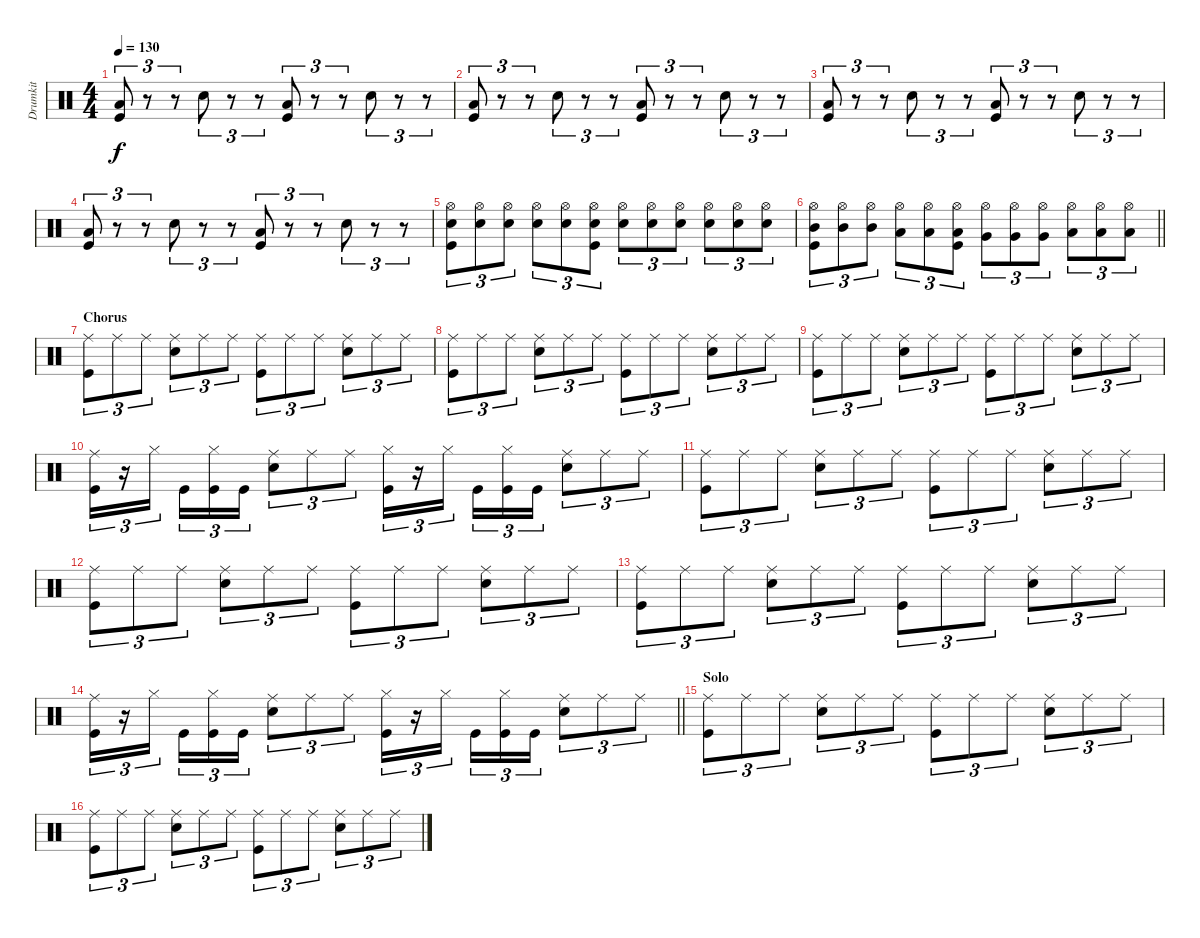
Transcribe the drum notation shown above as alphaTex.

\track ("Drumkit" "Drumkit") {instrument percussion}
\staff {score}
\articulation defaults
\ts (4 4)
\tempo 130
\clef neutral
\ks c
("Low Floor Tom (hit)" "Kick (hit)").8{tu (3 2) dy f} r.8{tu (3 2)} r.8{tu (3 2)} "Snare (hit) 2".8{tu (3 2)} r.8{tu (3 2)} r.8{tu (3 2)} ("Low Floor Tom (hit)" "Kick (hit)").8{tu (3 2)} r.8{tu (3 2)} r.8{tu (3 2)} "Snare (hit) 2".8{tu (3 2)} r.8{tu (3 2)} r.8{tu (3 2)} |
("Low Floor Tom (hit)" "Kick (hit)").8{tu (3 2)} r.8{tu (3 2)} r.8{tu (3 2)} "Snare (hit) 2".8{tu (3 2)} r.8{tu (3 2)} r.8{tu (3 2)} ("Low Floor Tom (hit)" "Kick (hit)").8{tu (3 2)} r.8{tu (3 2)} r.8{tu (3 2)} "Snare (hit) 2".8{tu (3 2)} r.8{tu (3 2)} r.8{tu (3 2)} |
("Low Floor Tom (hit)" "Kick (hit)").8{tu (3 2)} r.8{tu (3 2)} r.8{tu (3 2)} "Snare (hit) 2".8{tu (3 2)} r.8{tu (3 2)} r.8{tu (3 2)} ("Low Floor Tom (hit)" "Kick (hit)").8{tu (3 2)} r.8{tu (3 2)} r.8{tu (3 2)} "Snare (hit) 2".8{tu (3 2)} r.8{tu (3 2)} r.8{tu (3 2)} |
("Low Floor Tom (hit)" "Kick (hit)").8{tu (3 2)} r.8{tu (3 2)} r.8{tu (3 2)} "Snare (hit) 2".8{tu (3 2)} r.8{tu (3 2)} r.8{tu (3 2)} ("Low Floor Tom (hit)" "Kick (hit)").8{tu (3 2)} r.8{tu (3 2)} r.8{tu (3 2)} "Snare (hit) 2".8{tu (3 2)} r.8{tu (3 2)} r.8{tu (3 2)} |
("Kick (hit)" "Snare (hit) 2" "Hi-Hat (open)").8{tu (3 2)} ("Snare (hit) 2" "Hi-Hat (open)").8{tu (3 2)} ("Snare (hit) 2" "Hi-Hat (open)").8{tu (3 2)} ("Snare (hit) 2" "Hi-Hat (open)").8{tu (3 2)} ("Snare (hit) 2" "Hi-Hat (open)").8{tu (3 2)} ("Kick (hit)" "Snare (hit) 2" "Hi-Hat (open)").8{tu (3 2)} ("Snare (hit) 2" "Hi-Hat (open)").8{tu (3 2)} ("Snare (hit) 2" "Hi-Hat (open)").8{tu (3 2)} ("Snare (hit) 2" "Hi-Hat (open)").8{tu (3 2)} ("Snare (hit) 2" "Hi-Hat (open)").8{tu (3 2)} ("Snare (hit) 2" "Hi-Hat (open)").8{tu (3 2)} ("Snare (hit) 2" "Hi-Hat (open)").8{tu (3 2)} |
\barLineRight lightlight
("Kick (hit)" "Hi-Hat (open)" "Mid Tom (hit)").8{tu (3 2)} ("Hi-Hat (open)" "Mid Tom (hit)").8{tu (3 2)} ("Hi-Hat (open)" "Mid Tom (hit)").8{tu (3 2)} ("Hi-Hat (open)" "Low Tom (hit)").8{tu (3 2)} ("Hi-Hat (open)" "Low Tom (hit)").8{tu (3 2)} ("Kick (hit)" "Hi-Hat (open)" "Low Tom (hit)").8{tu (3 2)} ("Hi-Hat (open)" "Very Low Tom (hit)").8{tu (3 2)} ("Hi-Hat (open)" "Very Low Tom (hit)").8{tu (3 2)} ("Hi-Hat (open)" "Very Low Tom (hit)").8{tu (3 2)} ("Hi-Hat (open)" "Low Floor Tom (hit)").8{tu (3 2)} ("Hi-Hat (open)" "Low Floor Tom (hit)").8{tu (3 2)} ("Hi-Hat (open)" "Low Floor Tom (hit)").8{tu (3 2)} |
\section ("" "Chorus")
("Kick (hit)" "Ride (middle)").8{tu (3 2)} "Ride (middle)".8{tu (3 2)} "Ride (middle)".8{tu (3 2)} ("Snare (hit) 2" "Ride (middle)").8{tu (3 2)} "Ride (middle)".8{tu (3 2)} "Ride (middle)".8{tu (3 2)} ("Kick (hit)" "Ride (middle)").8{tu (3 2)} "Ride (middle)".8{tu (3 2)} "Ride (middle)".8{tu (3 2)} ("Snare (hit) 2" "Ride (middle)").8{tu (3 2)} "Ride (middle)".8{tu (3 2)} "Ride (middle)".8{tu (3 2)} |
("Kick (hit)" "Ride (middle)").8{tu (3 2)} "Ride (middle)".8{tu (3 2)} "Ride (middle)".8{tu (3 2)} ("Snare (hit) 2" "Ride (middle)").8{tu (3 2)} "Ride (middle)".8{tu (3 2)} "Ride (middle)".8{tu (3 2)} ("Kick (hit)" "Ride (middle)").8{tu (3 2)} "Ride (middle)".8{tu (3 2)} "Ride (middle)".8{tu (3 2)} ("Snare (hit) 2" "Ride (middle)").8{tu (3 2)} "Ride (middle)".8{tu (3 2)} "Ride (middle)".8{tu (3 2)} |
("Kick (hit)" "Ride (middle)").8{tu (3 2)} "Ride (middle)".8{tu (3 2)} "Ride (middle)".8{tu (3 2)} ("Snare (hit) 2" "Ride (middle)").8{tu (3 2)} "Ride (middle)".8{tu (3 2)} "Ride (middle)".8{tu (3 2)} ("Kick (hit)" "Ride (middle)").8{tu (3 2)} "Ride (middle)".8{tu (3 2)} "Ride (middle)".8{tu (3 2)} ("Snare (hit) 2" "Ride (middle)").8{tu (3 2)} "Ride (middle)".8{tu (3 2)} "Ride (middle)".8{tu (3 2)} |
("Kick (hit)" "Ride (middle)").16{tu (3 2)} r.16{tu (3 2)} "Hi-Hat (closed)".16{tu (3 2)} "Kick (hit)".16{tu (3 2)} ("Kick (hit)" "Hi-Hat (closed)").16{tu (3 2)} "Kick (hit)".16{tu (3 2)} ("Snare (hit) 2" "Ride (middle)").8{tu (3 2)} "Ride (middle)".8{tu (3 2)} "Ride (middle)".8{tu (3 2)} ("Kick (hit)" "Hi-Hat (closed)").16{tu (3 2)} r.16{tu (3 2)} "Hi-Hat (closed)".16{tu (3 2)} "Kick (hit)".16{tu (3 2)} ("Kick (hit)" "Hi-Hat (closed)").16{tu (3 2)} "Kick (hit)".16{tu (3 2)} ("Snare (hit) 2" "Ride (middle)").8{tu (3 2)} "Ride (middle)".8{tu (3 2)} "Ride (middle)".8{tu (3 2)} |
("Kick (hit)" "Ride (middle)").8{tu (3 2)} "Ride (middle)".8{tu (3 2)} "Ride (middle)".8{tu (3 2)} ("Snare (hit) 2" "Ride (middle)").8{tu (3 2)} "Ride (middle)".8{tu (3 2)} "Ride (middle)".8{tu (3 2)} ("Kick (hit)" "Ride (middle)").8{tu (3 2)} "Ride (middle)".8{tu (3 2)} "Ride (middle)".8{tu (3 2)} ("Snare (hit) 2" "Ride (middle)").8{tu (3 2)} "Ride (middle)".8{tu (3 2)} "Ride (middle)".8{tu (3 2)} |
("Kick (hit)" "Ride (middle)").8{tu (3 2)} "Ride (middle)".8{tu (3 2)} "Ride (middle)".8{tu (3 2)} ("Snare (hit) 2" "Ride (middle)").8{tu (3 2)} "Ride (middle)".8{tu (3 2)} "Ride (middle)".8{tu (3 2)} ("Kick (hit)" "Ride (middle)").8{tu (3 2)} "Ride (middle)".8{tu (3 2)} "Ride (middle)".8{tu (3 2)} ("Snare (hit) 2" "Ride (middle)").8{tu (3 2)} "Ride (middle)".8{tu (3 2)} "Ride (middle)".8{tu (3 2)} |
("Kick (hit)" "Ride (middle)").8{tu (3 2)} "Ride (middle)".8{tu (3 2)} "Ride (middle)".8{tu (3 2)} ("Snare (hit) 2" "Ride (middle)").8{tu (3 2)} "Ride (middle)".8{tu (3 2)} "Ride (middle)".8{tu (3 2)} ("Kick (hit)" "Ride (middle)").8{tu (3 2)} "Ride (middle)".8{tu (3 2)} "Ride (middle)".8{tu (3 2)} ("Snare (hit) 2" "Ride (middle)").8{tu (3 2)} "Ride (middle)".8{tu (3 2)} "Ride (middle)".8{tu (3 2)} |
\barLineRight lightlight
("Kick (hit)" "Ride (middle)").16{tu (3 2)} r.16{tu (3 2)} "Hi-Hat (closed)".16{tu (3 2)} "Kick (hit)".16{tu (3 2)} ("Kick (hit)" "Hi-Hat (closed)").16{tu (3 2)} "Kick (hit)".16{tu (3 2)} ("Snare (hit) 2" "Ride (middle)").8{tu (3 2)} "Ride (middle)".8{tu (3 2)} "Ride (middle)".8{tu (3 2)} ("Kick (hit)" "Hi-Hat (closed)").16{tu (3 2)} r.16{tu (3 2)} "Hi-Hat (closed)".16{tu (3 2)} "Kick (hit)".16{tu (3 2)} ("Kick (hit)" "Hi-Hat (closed)").16{tu (3 2)} "Kick (hit)".16{tu (3 2)} ("Snare (hit) 2" "Ride (middle)").8{tu (3 2)} "Ride (middle)".8{tu (3 2)} "Ride (middle)".8{tu (3 2)} |
\section ("" "Solo")
("Kick (hit)" "Ride (middle)").8{tu (3 2)} "Ride (middle)".8{tu (3 2)} "Ride (middle)".8{tu (3 2)} ("Snare (hit) 2" "Ride (middle)").8{tu (3 2)} "Ride (middle)".8{tu (3 2)} "Ride (middle)".8{tu (3 2)} ("Kick (hit)" "Ride (middle)").8{tu (3 2)} "Ride (middle)".8{tu (3 2)} "Ride (middle)".8{tu (3 2)} ("Snare (hit) 2" "Ride (middle)").8{tu (3 2)} "Ride (middle)".8{tu (3 2)} "Ride (middle)".8{tu (3 2)} |
("Kick (hit)" "Ride (middle)").8{tu (3 2)} "Ride (middle)".8{tu (3 2)} "Ride (middle)".8{tu (3 2)} ("Snare (hit) 2" "Ride (middle)").8{tu (3 2)} "Ride (middle)".8{tu (3 2)} "Ride (middle)".8{tu (3 2)} ("Kick (hit)" "Ride (middle)").8{tu (3 2)} "Ride (middle)".8{tu (3 2)} "Ride (middle)".8{tu (3 2)} ("Snare (hit) 2" "Ride (middle)").8{tu (3 2)} "Ride (middle)".8{tu (3 2)} "Ride (middle)".8{tu (3 2)}
